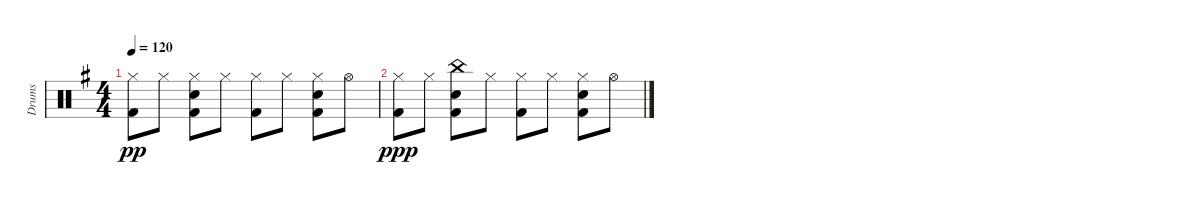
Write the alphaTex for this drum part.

\track ("Drums" "Drums") {instrument percussion}
\staff {score}
\articulation defaults
\ts (4 4)
\tempo 120
\clef neutral
\ks g
("Hi-Hat (closed)" "Kick (hit) 2").8{dy pp} "Hi-Hat (closed)".8 ("Hi-Hat (closed)" "Electric Snare (hit)" "Kick (hit) 2").8 "Hi-Hat (closed)".8 ("Hi-Hat (closed)" "Kick (hit) 2").8 "Hi-Hat (closed)".8 ("Hi-Hat (closed)" "Electric Snare (hit)" "Kick (hit) 2").8 "Hi-Hat (open)".8 |
("Hi-Hat (closed)" "Kick (hit) 2").8{dy ppp} "Hi-Hat (closed)".8 ("China (hit)" "Electric Snare (hit)" "Kick (hit) 2").8 "Hi-Hat (closed)".8 ("Hi-Hat (closed)" "Kick (hit) 2").8 "Hi-Hat (closed)".8 ("Hi-Hat (closed)" "Electric Snare (hit)" "Kick (hit) 2").8 "Hi-Hat (open)".8
